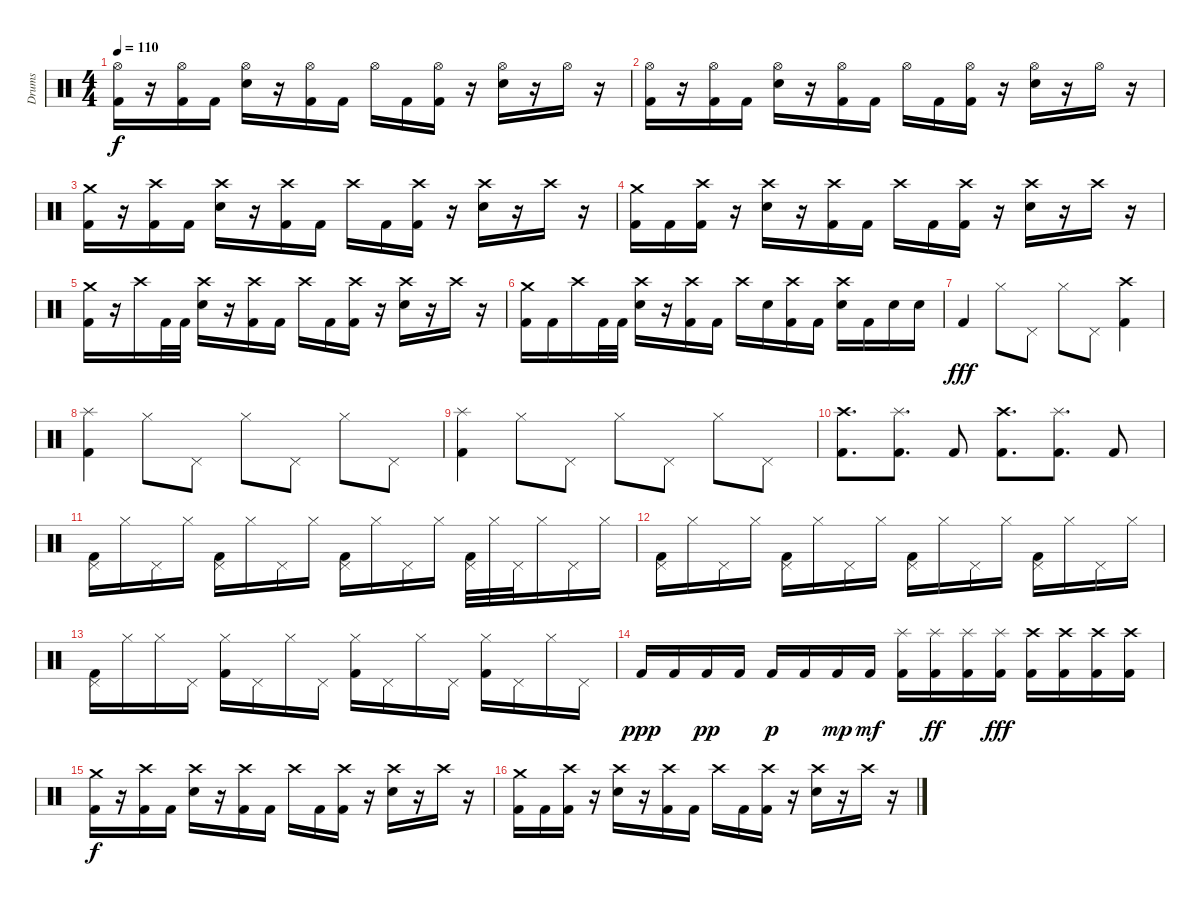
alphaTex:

\track ("Drums" "Drums") {mute instrument percussion}
\staff {score}
\articulation defaults
\ts (4 4)
\tempo 110
\clef neutral
\ks c
("Hi-Hat (open)" "Kick (hit) 2").16{dy f} r.16 ("Hi-Hat (open)" "Kick (hit) 2").16 "Kick (hit) 2".16 ("Hi-Hat (open)" "Electric Snare (hit)").16 r.16 ("Hi-Hat (open)" "Kick (hit) 2").16 "Kick (hit) 2".16 "Hi-Hat (open)".16 "Kick (hit) 2".16 ("Hi-Hat (open)" "Kick (hit) 2").16 r.16 ("Hi-Hat (open)" "Electric Snare (hit)").16 r.16 "Hi-Hat (open)".16 r.16 |
("Hi-Hat (open)" "Kick (hit) 2").16 r.16 ("Hi-Hat (open)" "Kick (hit) 2").16 "Kick (hit) 2".16 ("Hi-Hat (open)" "Electric Snare (hit)").16 r.16 ("Hi-Hat (open)" "Kick (hit) 2").16 "Kick (hit) 2".16 "Hi-Hat (open)".16 "Kick (hit) 2".16 ("Hi-Hat (open)" "Kick (hit) 2").16 r.16 ("Hi-Hat (open)" "Electric Snare (hit)").16 r.16 "Hi-Hat (open)".16 r.16 |
("Crash medium (hit)" "Kick (hit) 2").16 r.16 ("Crash high (hit)" "Kick (hit) 2").16 "Kick (hit) 2".16 ("Crash high (hit)" "Electric Snare (hit)").16 r.16 ("Crash high (hit)" "Kick (hit) 2").16 "Kick (hit) 2".16 "Crash high (hit)".16 "Kick (hit) 2".16 ("Crash high (hit)" "Kick (hit) 2").16 r.16 ("Crash high (hit)" "Electric Snare (hit)").16 r.16 "Crash high (hit)".16 r.16 |
("Crash medium (hit)" "Kick (hit) 2").16 "Kick (hit) 2".16 ("Crash high (hit)" "Kick (hit) 2").16 r.16 ("Crash high (hit)" "Electric Snare (hit)").16 r.16 ("Crash high (hit)" "Kick (hit) 2").16 "Kick (hit) 2".16 "Crash high (hit)".16 "Kick (hit) 2".16 ("Crash high (hit)" "Kick (hit) 2").16 r.16 ("Crash high (hit)" "Electric Snare (hit)").16 r.16 "Crash high (hit)".16 r.16 |
("Crash medium (hit)" "Kick (hit) 2").16 r.16 "Crash high (hit)".16 "Kick (hit) 2".32 "Kick (hit) 2".32 ("Crash high (hit)" "Electric Snare (hit)").16 r.16 ("Crash high (hit)" "Kick (hit) 2").16 "Kick (hit) 2".16 "Crash high (hit)".16 "Kick (hit) 2".16 ("Crash high (hit)" "Kick (hit) 2").16 r.16 ("Crash high (hit)" "Electric Snare (hit)").16 r.16 "Crash high (hit)".16 r.16 |
("Crash medium (hit)" "Kick (hit) 2").16 "Kick (hit) 2".16 "Crash high (hit)".16 "Kick (hit) 2".32 "Kick (hit) 2".32 ("Crash high (hit)" "Electric Snare (hit)").16 r.16 ("Crash high (hit)" "Kick (hit) 2").16 "Kick (hit) 2".16 "Crash high (hit)".16 "Electric Snare (hit)".16 ("Crash high (hit)" "Kick (hit) 2").16 "Kick (hit) 2".16 ("Crash high (hit)" "Electric Snare (hit)").16 "Kick (hit) 2".16 "Electric Snare (hit)".16 "Electric Snare (hit)".16 |
"Kick (hit) 2".4{dy fff} "Hi-Hat (closed)".8 "Pedal Hi-Hat (hit)".8 "Hi-Hat (closed)".8 "Pedal Hi-Hat (hit)".8 ("Crash high (hit)" "Kick (hit) 2").4 |
("Splash (hit)" "Kick (hit) 2").4 "Hi-Hat (closed)".8 "Pedal Hi-Hat (hit)".8 "Hi-Hat (closed)".8 "Pedal Hi-Hat (hit)".8 "Hi-Hat (closed)".8 "Pedal Hi-Hat (hit)".8 |
("Splash (hit)" "Kick (hit) 2").4 "Hi-Hat (closed)".8 "Pedal Hi-Hat (hit)".8 "Hi-Hat (closed)".8 "Pedal Hi-Hat (hit)".8 "Hi-Hat (closed)".8 "Pedal Hi-Hat (hit)".8 |
("Kick (hit) 2" "Crash high (hit)").8{d} ("Kick (hit) 2" "Splash (hit)").8{d} "Kick (hit) 2".8 ("Kick (hit) 2" "Crash high (hit)").8{d} ("Kick (hit) 2" "Splash (hit)").8{d} "Kick (hit) 2".8 |
("Pedal Hi-Hat (hit)" "Kick (hit) 2").16 "Hi-Hat (closed)".16 "Pedal Hi-Hat (hit)".16 "Hi-Hat (closed)".16 ("Pedal Hi-Hat (hit)" "Kick (hit) 2").16 "Hi-Hat (closed)".16 "Pedal Hi-Hat (hit)".16 "Hi-Hat (closed)".16 ("Pedal Hi-Hat (hit)" "Kick (hit) 2").16 "Hi-Hat (closed)".16 "Pedal Hi-Hat (hit)".16 "Hi-Hat (closed)".16 ("Pedal Hi-Hat (hit)" "Kick (hit) 2").32 "Hi-Hat (closed)".32 "Pedal Hi-Hat (hit)".32 "Hi-Hat (closed)".16 "Pedal Hi-Hat (hit)".16 "Hi-Hat (closed)".16 |
("Pedal Hi-Hat (hit)" "Kick (hit) 2").16 "Hi-Hat (closed)".16 "Pedal Hi-Hat (hit)".16 "Hi-Hat (closed)".16 ("Pedal Hi-Hat (hit)" "Kick (hit) 2").16 "Hi-Hat (closed)".16 "Pedal Hi-Hat (hit)".16 "Hi-Hat (closed)".16 ("Pedal Hi-Hat (hit)" "Kick (hit) 2").16 "Hi-Hat (closed)".16 "Pedal Hi-Hat (hit)".16 "Hi-Hat (closed)".16 ("Pedal Hi-Hat (hit)" "Kick (hit) 2").16 "Hi-Hat (closed)".16 "Pedal Hi-Hat (hit)".16 "Hi-Hat (closed)".16 |
("Pedal Hi-Hat (hit)" "Kick (hit) 2").16 "Hi-Hat (closed)".16 "Hi-Hat (closed)".16 "Pedal Hi-Hat (hit)".16 ("Hi-Hat (closed)" "Kick (hit) 2").16 "Pedal Hi-Hat (hit)".16 "Hi-Hat (closed)".16 "Pedal Hi-Hat (hit)".16 ("Hi-Hat (closed)" "Kick (hit) 2").16 "Pedal Hi-Hat (hit)".16 "Hi-Hat (closed)".16 "Pedal Hi-Hat (hit)".16 ("Hi-Hat (closed)" "Kick (hit) 2").16 "Pedal Hi-Hat (hit)".16 "Hi-Hat (closed)".16 "Pedal Hi-Hat (hit)".16 |
"Kick (hit) 2".16{dy ppp} "Kick (hit) 2".16 "Kick (hit) 2".16{dy pp} "Kick (hit) 2".16 "Kick (hit) 2".16{dy p} "Kick (hit) 2".16 "Kick (hit) 2".16{dy mp} "Kick (hit) 2".16{dy mf} ("Kick (hit) 2" "Splash (hit)").16 ("Kick (hit) 2" "Splash (hit)").16{dy ff} ("Kick (hit) 2" "Splash (hit)").16 ("Kick (hit) 2" "Splash (hit)").16{dy fff} ("Kick (hit) 2" "Crash high (hit)").16 ("Kick (hit) 2" "Crash high (hit)").16 ("Kick (hit) 2" "Crash high (hit)").16 ("Kick (hit) 2" "Crash high (hit)").16 |
("Crash medium (hit)" "Kick (hit) 2").16{dy f} r.16 ("Crash high (hit)" "Kick (hit) 2").16 "Kick (hit) 2".16 ("Crash high (hit)" "Electric Snare (hit)").16 r.16 ("Crash high (hit)" "Kick (hit) 2").16 "Kick (hit) 2".16 "Crash high (hit)".16 "Kick (hit) 2".16 ("Crash high (hit)" "Kick (hit) 2").16 r.16 ("Crash high (hit)" "Electric Snare (hit)").16 r.16 "Crash high (hit)".16 r.16 |
("Crash medium (hit)" "Kick (hit) 2").16 "Kick (hit) 2".16 ("Crash high (hit)" "Kick (hit) 2").16 r.16 ("Crash high (hit)" "Electric Snare (hit)").16 r.16 ("Crash high (hit)" "Kick (hit) 2").16 "Kick (hit) 2".16 "Crash high (hit)".16 "Kick (hit) 2".16 ("Crash high (hit)" "Kick (hit) 2").16 r.16 ("Crash high (hit)" "Electric Snare (hit)").16 r.16 "Crash high (hit)".16 r.16
